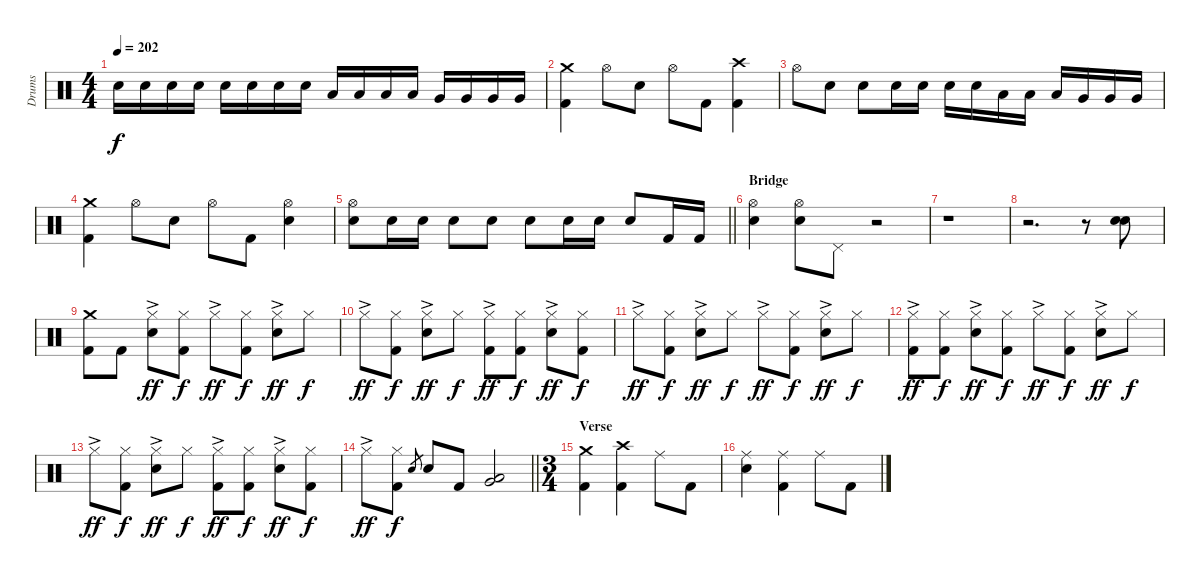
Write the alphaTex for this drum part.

\track ("Drums" "Drums") {instrument percussion}
\staff {score}
\articulation defaults
\ts (4 4)
\tempo 202
\clef neutral
\ks c "Electric Snare (hit)".16{dy f} "Electric Snare (hit)".16 "Electric Snare (hit)".16 "Electric Snare (hit)".16 "Electric Snare (hit)".16 "Electric Snare (hit)".16 "Electric Snare (hit)".16 "Electric Snare (hit)".16 "Low Tom (hit)".16 "Low Tom (hit)".16 "Low Tom (hit)".16 "Low Tom (hit)".16 "Very Low Tom (hit)".16 "Very Low Tom (hit)".16 "Very Low Tom (hit)".16 "Very Low Tom (hit)".16
|
("Crash medium (hit)" "Kick (hit) 2").4 "Hi-Hat (open)".8 "Electric Snare (hit)".8 "Hi-Hat (open)".8 "Kick (hit) 2".8 ("Crash high (hit)" "Kick (hit) 2").4 |
"Hi-Hat (open)".8 "Electric Snare (hit)".8 "Electric Snare (hit)".8 "Electric Snare (hit)".16 "Electric Snare (hit)".16 "Electric Snare (hit)".16 "Electric Snare (hit)".16 "Low Tom (hit)".16 "Low Tom (hit)".16 "Low Tom (hit)".16 "Very Low Tom (hit)".16 "Very Low Tom (hit)".16 "Very Low Tom (hit)".16 |
("Crash medium (hit)" "Kick (hit) 2").4 "Hi-Hat (open)".8 "Electric Snare (hit)".8 "Hi-Hat (open)".8 "Kick (hit) 2".8 ("Hi-Hat (open)" "Electric Snare (hit)").4 |
\barLineRight lightlight
("Hi-Hat (open)" "Electric Snare (hit)").8 "Electric Snare (hit)".16 "Electric Snare (hit)".16 "Electric Snare (hit)".8 "Electric Snare (hit)".8 "Electric Snare (hit)".8 "Electric Snare (hit)".16 "Electric Snare (hit)".16 "Electric Snare (hit)".8 "Kick (hit) 2".16 "Kick (hit) 2".16 |
\section ("" "Bridge")
("Hi-Hat (open)" "Electric Snare (hit)").4 ("Hi-Hat (open)" "Electric Snare (hit)").8 "Pedal Hi-Hat (hit)".8 r.2 |
r.1 |
r.2{d} r.8 ("Electric Snare (hit)" "Electric Snare (hit)").8 |
("Crash medium (hit)" "Kick (hit) 2").8 "Kick (hit) 2".8 ("Hi-Hat (closed)"{ac} "Electric Snare (hit)").8{dy ff} ("Hi-Hat (closed)" "Kick (hit) 2").8{dy f} "Hi-Hat (closed)"{ac}.8{dy ff} ("Hi-Hat (closed)" "Kick (hit) 2").8{dy f} ("Hi-Hat (closed)"{ac} "Electric Snare (hit)").8{dy ff} "Hi-Hat (closed)".8{dy f} |
"Hi-Hat (closed)"{ac}.8{dy ff} ("Hi-Hat (closed)" "Kick (hit) 2").8{dy f} ("Hi-Hat (closed)"{ac} "Electric Snare (hit)").8{dy ff} "Hi-Hat (closed)".8{dy f} ("Hi-Hat (closed)"{ac} "Kick (hit) 2").8{dy ff} ("Hi-Hat (closed)" "Kick (hit) 2").8{dy f} ("Hi-Hat (closed)"{ac} "Electric Snare (hit)").8{dy ff} ("Hi-Hat (closed)" "Kick (hit) 2").8{dy f} |
"Hi-Hat (closed)"{ac}.8{dy ff} ("Hi-Hat (closed)" "Kick (hit) 2").8{dy f} ("Hi-Hat (closed)"{ac} "Electric Snare (hit)").8{dy ff} "Hi-Hat (closed)".8{dy f} "Hi-Hat (closed)"{ac}.8{dy ff} ("Hi-Hat (closed)" "Kick (hit) 2").8{dy f} ("Hi-Hat (closed)"{ac} "Electric Snare (hit)").8{dy ff} "Hi-Hat (closed)".8{dy f} |
("Hi-Hat (closed)"{ac} "Kick (hit) 2").8{dy ff} ("Hi-Hat (closed)" "Kick (hit) 2").8{dy f} ("Hi-Hat (closed)"{ac} "Electric Snare (hit)").8{dy ff} ("Hi-Hat (closed)" "Kick (hit) 2").8{dy f} "Hi-Hat (closed)"{ac}.8{dy ff} ("Hi-Hat (closed)" "Kick (hit) 2").8{dy f} ("Hi-Hat (closed)"{ac} "Electric Snare (hit)").8{dy ff} "Hi-Hat (closed)".8{dy f} |
"Hi-Hat (closed)"{ac}.8{dy ff} ("Hi-Hat (closed)" "Kick (hit) 2").8{dy f} ("Hi-Hat (closed)"{ac} "Electric Snare (hit)").8{dy ff} "Hi-Hat (closed)".8{dy f} ("Hi-Hat (closed)"{ac} "Kick (hit) 2").8{dy ff} ("Hi-Hat (closed)" "Kick (hit) 2").8{dy f} ("Hi-Hat (closed)"{ac} "Electric Snare (hit)").8{dy ff} ("Hi-Hat (closed)" "Kick (hit) 2").8{dy f} |
\barLineRight lightlight "Hi-Hat (closed)"{ac}.8{dy ff}
("Hi-Hat (closed)" "Kick (hit) 2").8{dy f} "Electric Snare (hit)".8{gr} "Electric Snare (hit)".8 "Kick (hit) 2".8 ("Very Low Tom (hit)" "Low Floor Tom (hit)").2 |
\ts (3 4)
\section ("" "Verse")
("Crash medium (hit)" "Kick (hit) 2").4 ("Crash high (hit)" "Kick (hit) 2").4 "Ride (middle)".8 "Kick (hit) 2".8 |
("Ride (middle)" "Electric Snare (hit)").4 ("Ride (middle)" "Kick (hit) 2").4 "Ride (middle)".8 "Kick (hit) 2".8
